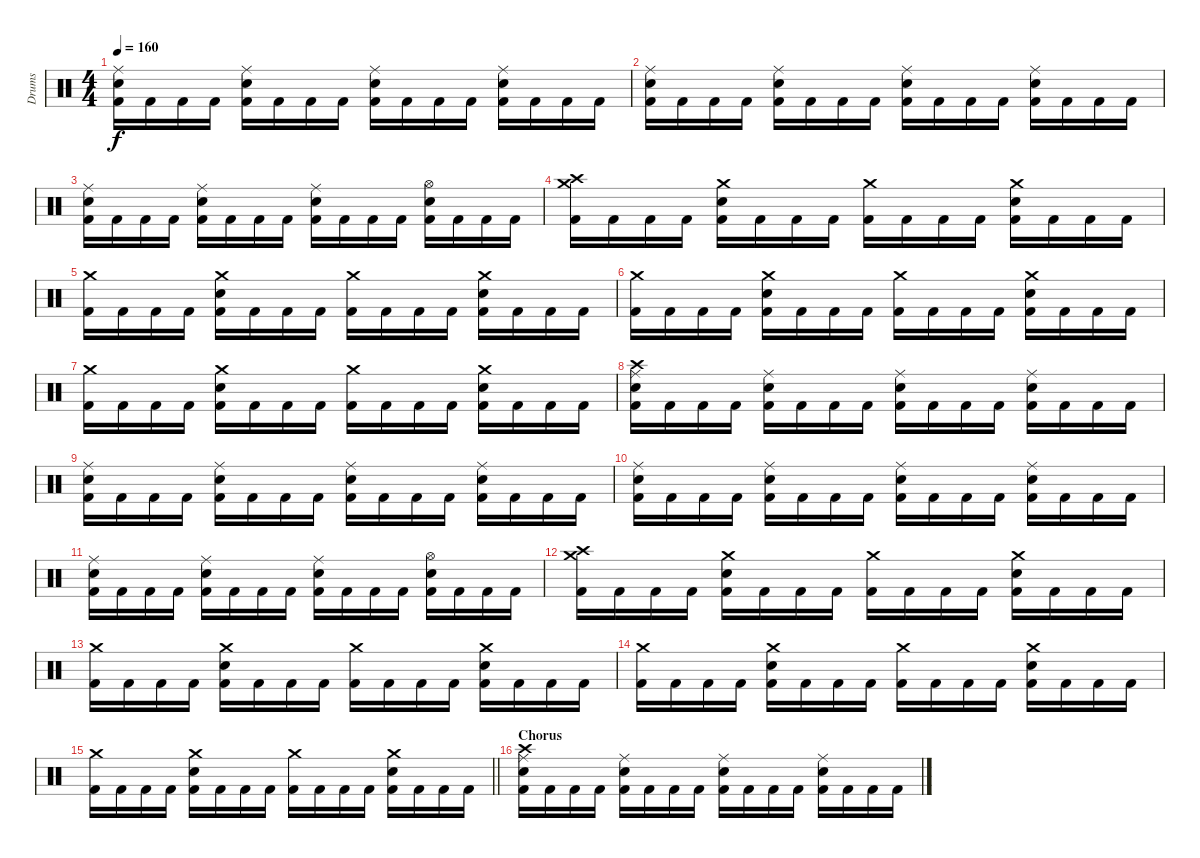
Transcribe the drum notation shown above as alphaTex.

\track ("Drums" "Drums") {instrument percussion}
\staff {score}
\articulation defaults
\ts (4 4)
\tempo 160
\clef neutral
\ks c
("Snare (hit) 2" "Kick (hit) 2" "Ride (middle)").16{dy f} "Kick (hit) 2".16 "Kick (hit) 2".16 "Kick (hit) 2".16 ("Snare (hit) 2" "Kick (hit) 2" "Ride (middle)").16 "Kick (hit) 2".16 "Kick (hit) 2".16 "Kick (hit) 2".16 ("Snare (hit) 2" "Kick (hit) 2" "Ride (middle)").16 "Kick (hit) 2".16 "Kick (hit) 2".16 "Kick (hit) 2".16 ("Snare (hit) 2" "Kick (hit) 2" "Ride (middle)").16 "Kick (hit) 2".16 "Kick (hit) 2".16 "Kick (hit) 2".16 |
("Snare (hit) 2" "Kick (hit) 2" "Ride (middle)").16 "Kick (hit) 2".16 "Kick (hit) 2".16 "Kick (hit) 2".16 ("Snare (hit) 2" "Kick (hit) 2" "Ride (middle)").16 "Kick (hit) 2".16 "Kick (hit) 2".16 "Kick (hit) 2".16 ("Snare (hit) 2" "Kick (hit) 2" "Ride (middle)").16 "Kick (hit) 2".16 "Kick (hit) 2".16 "Kick (hit) 2".16 ("Snare (hit) 2" "Kick (hit) 2" "Ride (middle)").16 "Kick (hit) 2".16 "Kick (hit) 2".16 "Kick (hit) 2".16 |
("Snare (hit) 2" "Kick (hit) 2" "Ride (middle)").16 "Kick (hit) 2".16 "Kick (hit) 2".16 "Kick (hit) 2".16 ("Snare (hit) 2" "Kick (hit) 2" "Ride (middle)").16 "Kick (hit) 2".16 "Kick (hit) 2".16 "Kick (hit) 2".16 ("Snare (hit) 2" "Kick (hit) 2" "Ride (middle)").16 "Kick (hit) 2".16 "Kick (hit) 2".16 "Kick (hit) 2".16 ("Snare (hit) 2" "Kick (hit) 2" "Hi-Hat (open)").16 "Kick (hit) 2".16 "Kick (hit) 2".16 "Kick (hit) 2".16 |
("Kick (hit) 2" "Crash medium (hit)" "Crash high (hit)").16 "Kick (hit) 2".16 "Kick (hit) 2".16 "Kick (hit) 2".16 ("Snare (hit) 2" "Kick (hit) 2" "Crash medium (hit)").16 "Kick (hit) 2".16 "Kick (hit) 2".16 "Kick (hit) 2".16 ("Kick (hit) 2" "Crash medium (hit)").16 "Kick (hit) 2".16 "Kick (hit) 2".16 "Kick (hit) 2".16 ("Snare (hit) 2" "Kick (hit) 2" "Crash medium (hit)").16 "Kick (hit) 2".16 "Kick (hit) 2".16 "Kick (hit) 2".16 |
("Kick (hit) 2" "Crash medium (hit)").16 "Kick (hit) 2".16 "Kick (hit) 2".16 "Kick (hit) 2".16 ("Snare (hit) 2" "Kick (hit) 2" "Crash medium (hit)").16 "Kick (hit) 2".16 "Kick (hit) 2".16 "Kick (hit) 2".16 ("Kick (hit) 2" "Crash medium (hit)").16 "Kick (hit) 2".16 "Kick (hit) 2".16 "Kick (hit) 2".16 ("Snare (hit) 2" "Kick (hit) 2" "Crash medium (hit)").16 "Kick (hit) 2".16 "Kick (hit) 2".16 "Kick (hit) 2".16 |
("Kick (hit) 2" "Crash medium (hit)").16 "Kick (hit) 2".16 "Kick (hit) 2".16 "Kick (hit) 2".16 ("Snare (hit) 2" "Kick (hit) 2" "Crash medium (hit)").16 "Kick (hit) 2".16 "Kick (hit) 2".16 "Kick (hit) 2".16 ("Kick (hit) 2" "Crash medium (hit)").16 "Kick (hit) 2".16 "Kick (hit) 2".16 "Kick (hit) 2".16 ("Snare (hit) 2" "Kick (hit) 2" "Crash medium (hit)").16 "Kick (hit) 2".16 "Kick (hit) 2".16 "Kick (hit) 2".16 |
("Kick (hit) 2" "Crash medium (hit)").16 "Kick (hit) 2".16 "Kick (hit) 2".16 "Kick (hit) 2".16 ("Snare (hit) 2" "Kick (hit) 2" "Crash medium (hit)").16 "Kick (hit) 2".16 "Kick (hit) 2".16 "Kick (hit) 2".16 ("Kick (hit) 2" "Crash medium (hit)").16 "Kick (hit) 2".16 "Kick (hit) 2".16 "Kick (hit) 2".16 ("Snare (hit) 2" "Kick (hit) 2" "Crash medium (hit)").16 "Kick (hit) 2".16 "Kick (hit) 2".16 "Kick (hit) 2".16 |
("Snare (hit) 2" "Kick (hit) 2" "Ride (middle)" "Crash high (hit)").16 "Kick (hit) 2".16 "Kick (hit) 2".16 "Kick (hit) 2".16 ("Snare (hit) 2" "Kick (hit) 2" "Ride (middle)").16 "Kick (hit) 2".16 "Kick (hit) 2".16 "Kick (hit) 2".16 ("Snare (hit) 2" "Kick (hit) 2" "Ride (middle)").16 "Kick (hit) 2".16 "Kick (hit) 2".16 "Kick (hit) 2".16 ("Snare (hit) 2" "Kick (hit) 2" "Ride (middle)").16 "Kick (hit) 2".16 "Kick (hit) 2".16 "Kick (hit) 2".16 |
("Snare (hit) 2" "Kick (hit) 2" "Ride (middle)").16 "Kick (hit) 2".16 "Kick (hit) 2".16 "Kick (hit) 2".16 ("Snare (hit) 2" "Kick (hit) 2" "Ride (middle)").16 "Kick (hit) 2".16 "Kick (hit) 2".16 "Kick (hit) 2".16 ("Snare (hit) 2" "Kick (hit) 2" "Ride (middle)").16 "Kick (hit) 2".16 "Kick (hit) 2".16 "Kick (hit) 2".16 ("Snare (hit) 2" "Kick (hit) 2" "Ride (middle)").16 "Kick (hit) 2".16 "Kick (hit) 2".16 "Kick (hit) 2".16 |
("Snare (hit) 2" "Kick (hit) 2" "Ride (middle)").16 "Kick (hit) 2".16 "Kick (hit) 2".16 "Kick (hit) 2".16 ("Snare (hit) 2" "Kick (hit) 2" "Ride (middle)").16 "Kick (hit) 2".16 "Kick (hit) 2".16 "Kick (hit) 2".16 ("Snare (hit) 2" "Kick (hit) 2" "Ride (middle)").16 "Kick (hit) 2".16 "Kick (hit) 2".16 "Kick (hit) 2".16 ("Snare (hit) 2" "Kick (hit) 2" "Ride (middle)").16 "Kick (hit) 2".16 "Kick (hit) 2".16 "Kick (hit) 2".16 |
("Snare (hit) 2" "Kick (hit) 2" "Ride (middle)").16 "Kick (hit) 2".16 "Kick (hit) 2".16 "Kick (hit) 2".16 ("Snare (hit) 2" "Kick (hit) 2" "Ride (middle)").16 "Kick (hit) 2".16 "Kick (hit) 2".16 "Kick (hit) 2".16 ("Snare (hit) 2" "Kick (hit) 2" "Ride (middle)").16 "Kick (hit) 2".16 "Kick (hit) 2".16 "Kick (hit) 2".16 ("Snare (hit) 2" "Kick (hit) 2" "Hi-Hat (open)").16 "Kick (hit) 2".16 "Kick (hit) 2".16 "Kick (hit) 2".16 |
("Kick (hit) 2" "Crash medium (hit)" "Crash high (hit)").16 "Kick (hit) 2".16 "Kick (hit) 2".16 "Kick (hit) 2".16 ("Snare (hit) 2" "Kick (hit) 2" "Crash medium (hit)").16 "Kick (hit) 2".16 "Kick (hit) 2".16 "Kick (hit) 2".16 ("Kick (hit) 2" "Crash medium (hit)").16 "Kick (hit) 2".16 "Kick (hit) 2".16 "Kick (hit) 2".16 ("Snare (hit) 2" "Kick (hit) 2" "Crash medium (hit)").16 "Kick (hit) 2".16 "Kick (hit) 2".16 "Kick (hit) 2".16 |
("Kick (hit) 2" "Crash medium (hit)").16 "Kick (hit) 2".16 "Kick (hit) 2".16 "Kick (hit) 2".16 ("Snare (hit) 2" "Kick (hit) 2" "Crash medium (hit)").16 "Kick (hit) 2".16 "Kick (hit) 2".16 "Kick (hit) 2".16 ("Kick (hit) 2" "Crash medium (hit)").16 "Kick (hit) 2".16 "Kick (hit) 2".16 "Kick (hit) 2".16 ("Snare (hit) 2" "Kick (hit) 2" "Crash medium (hit)").16 "Kick (hit) 2".16 "Kick (hit) 2".16 "Kick (hit) 2".16 |
("Kick (hit) 2" "Crash medium (hit)").16 "Kick (hit) 2".16 "Kick (hit) 2".16 "Kick (hit) 2".16 ("Snare (hit) 2" "Kick (hit) 2" "Crash medium (hit)").16 "Kick (hit) 2".16 "Kick (hit) 2".16 "Kick (hit) 2".16 ("Kick (hit) 2" "Crash medium (hit)").16 "Kick (hit) 2".16 "Kick (hit) 2".16 "Kick (hit) 2".16 ("Snare (hit) 2" "Kick (hit) 2" "Crash medium (hit)").16 "Kick (hit) 2".16 "Kick (hit) 2".16 "Kick (hit) 2".16 |
\barLineRight lightlight
("Kick (hit) 2" "Crash medium (hit)").16 "Kick (hit) 2".16 "Kick (hit) 2".16 "Kick (hit) 2".16 ("Snare (hit) 2" "Kick (hit) 2" "Crash medium (hit)").16 "Kick (hit) 2".16 "Kick (hit) 2".16 "Kick (hit) 2".16 ("Kick (hit) 2" "Crash medium (hit)").16 "Kick (hit) 2".16 "Kick (hit) 2".16 "Kick (hit) 2".16 ("Snare (hit) 2" "Kick (hit) 2" "Crash medium (hit)").16 "Kick (hit) 2".16 "Kick (hit) 2".16 "Kick (hit) 2".16 |
\section ("" "Chorus")
("Snare (hit) 2" "Kick (hit) 2" "Ride (middle)" "Crash high (hit)").16 "Kick (hit) 2".16 "Kick (hit) 2".16 "Kick (hit) 2".16 ("Snare (hit) 2" "Kick (hit) 2" "Ride (middle)").16 "Kick (hit) 2".16 "Kick (hit) 2".16 "Kick (hit) 2".16 ("Snare (hit) 2" "Kick (hit) 2" "Ride (middle)").16 "Kick (hit) 2".16 "Kick (hit) 2".16 "Kick (hit) 2".16 ("Snare (hit) 2" "Kick (hit) 2" "Ride (middle)").16 "Kick (hit) 2".16 "Kick (hit) 2".16 "Kick (hit) 2".16
